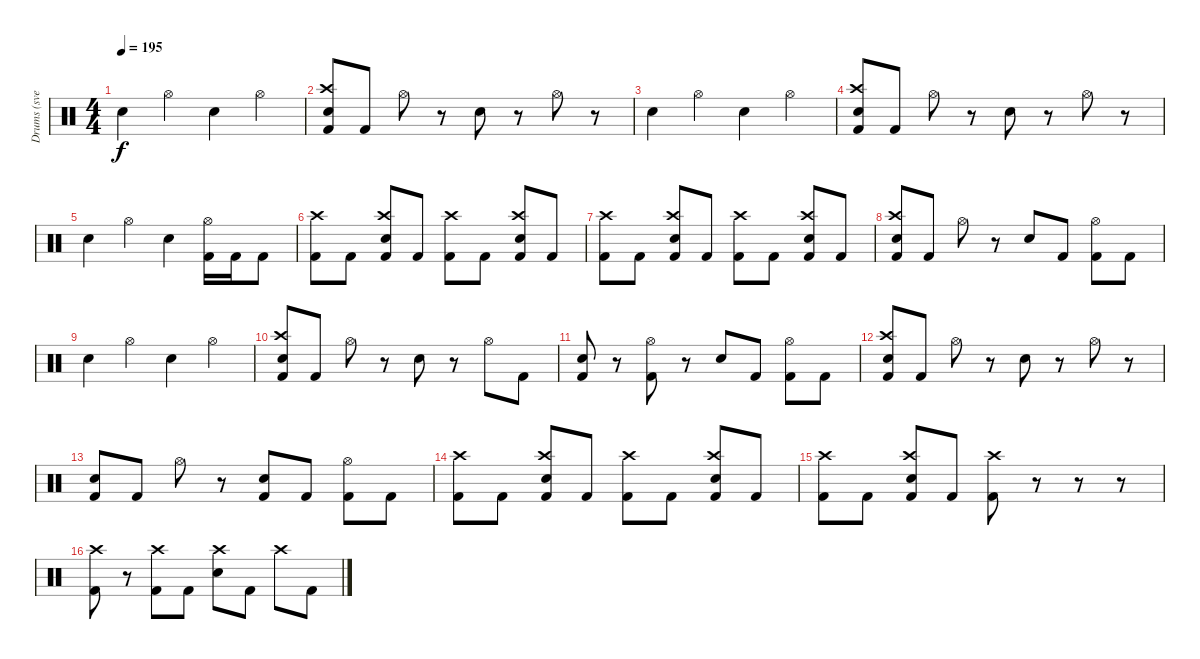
\track ("Drums (svelle)" "Drums (sve") {instrument percussion}
\staff {score}
\articulation defaults
\ts (4 4)
\tempo 195
\clef neutral
\ks c "Electric Snare (hit)".4{dy f} "Hi-Hat (open)".4 "Electric Snare (hit)".4 "Hi-Hat (open)".4
|
("Crash high (hit)" "Electric Snare (hit)" "Kick (hit) 2").8 "Kick (hit) 2".8 "Hi-Hat (open)".8 r.8 "Electric Snare (hit)".8 r.8 "Hi-Hat (open)".8 r.8 |
"Electric Snare (hit)".4 "Hi-Hat (open)".4 "Electric Snare (hit)".4 "Hi-Hat (open)".4 |
("Crash high (hit)" "Electric Snare (hit)" "Kick (hit) 2").8 "Kick (hit) 2".8 "Hi-Hat (open)".8 r.8 "Electric Snare (hit)".8 r.8 "Hi-Hat (open)".8 r.8 |
"Electric Snare (hit)".4 "Hi-Hat (open)".4 "Electric Snare (hit)".4 ("Hi-Hat (open)" "Kick (hit) 2").16 "Kick (hit) 2".16 "Kick (hit) 2".8 |
("Crash high (hit)" "Kick (hit) 2").8 "Kick (hit) 2".8 ("Crash high (hit)" "Electric Snare (hit)" "Kick (hit) 2").8 "Kick (hit) 2".8 ("Crash high (hit)" "Kick (hit) 2").8 "Kick (hit) 2".8 ("Crash high (hit)" "Electric Snare (hit)" "Kick (hit) 2").8 "Kick (hit) 2".8 |
("Crash high (hit)" "Kick (hit) 2").8 "Kick (hit) 2".8 ("Crash high (hit)" "Electric Snare (hit)" "Kick (hit) 2").8 "Kick (hit) 2".8 ("Crash high (hit)" "Kick (hit) 2").8 "Kick (hit) 2".8 ("Crash high (hit)" "Electric Snare (hit)" "Kick (hit) 2").8 "Kick (hit) 2".8 |
("Crash high (hit)" "Electric Snare (hit)" "Kick (hit) 2").8 "Kick (hit) 2".8 "Hi-Hat (open)".8 r.8 "Electric Snare (hit)".8 "Kick (hit) 2".8 ("Hi-Hat (open)" "Kick (hit) 2").8 "Kick (hit) 2".8 |
"Electric Snare (hit)".4 "Hi-Hat (open)".4 "Electric Snare (hit)".4 "Hi-Hat (open)".4 |
("Crash high (hit)" "Electric Snare (hit)" "Kick (hit) 2").8 "Kick (hit) 2".8 "Hi-Hat (open)".8 r.8 "Electric Snare (hit)".8 r.8 "Hi-Hat (open)".8 "Kick (hit) 2".8 |
("Electric Snare (hit)" "Kick (hit) 2").8 r.8 ("Hi-Hat (open)" "Kick (hit) 2").8 r.8 "Electric Snare (hit)".8 "Kick (hit) 2".8 ("Hi-Hat (open)" "Kick (hit) 2").8 "Kick (hit) 2".8 |
("Crash high (hit)" "Electric Snare (hit)" "Kick (hit) 2").8 "Kick (hit) 2".8 "Hi-Hat (open)".8 r.8 "Electric Snare (hit)".8 r.8 "Hi-Hat (open)".8 r.8 |
("Electric Snare (hit)" "Kick (hit) 2").8 "Kick (hit) 2".8 "Hi-Hat (open)".8 r.8 ("Electric Snare (hit)" "Kick (hit) 2").8 "Kick (hit) 2".8 ("Hi-Hat (open)" "Kick (hit) 2").8 "Kick (hit) 2".8 |
("Crash high (hit)" "Kick (hit) 2").8 "Kick (hit) 2".8 ("Crash high (hit)" "Electric Snare (hit)" "Kick (hit) 2").8 "Kick (hit) 2".8 ("Crash high (hit)" "Kick (hit) 2").8 "Kick (hit) 2".8 ("Crash high (hit)" "Electric Snare (hit)" "Kick (hit) 2").8 "Kick (hit) 2".8 |
("Crash high (hit)" "Kick (hit) 2").8 "Kick (hit) 2".8 ("Crash high (hit)" "Electric Snare (hit)" "Kick (hit) 2").8 "Kick (hit) 2".8 ("Crash high (hit)" "Kick (hit) 2").8 r.8 r.8 r.8 |
("Crash high (hit)" "Kick (hit) 2").8 r.8 ("Crash high (hit)" "Kick (hit) 2").8 "Kick (hit) 2".8 ("Crash high (hit)" "Electric Snare (hit)").8 "Kick (hit) 2".8 "Crash high (hit)".8 "Kick (hit) 2".8
